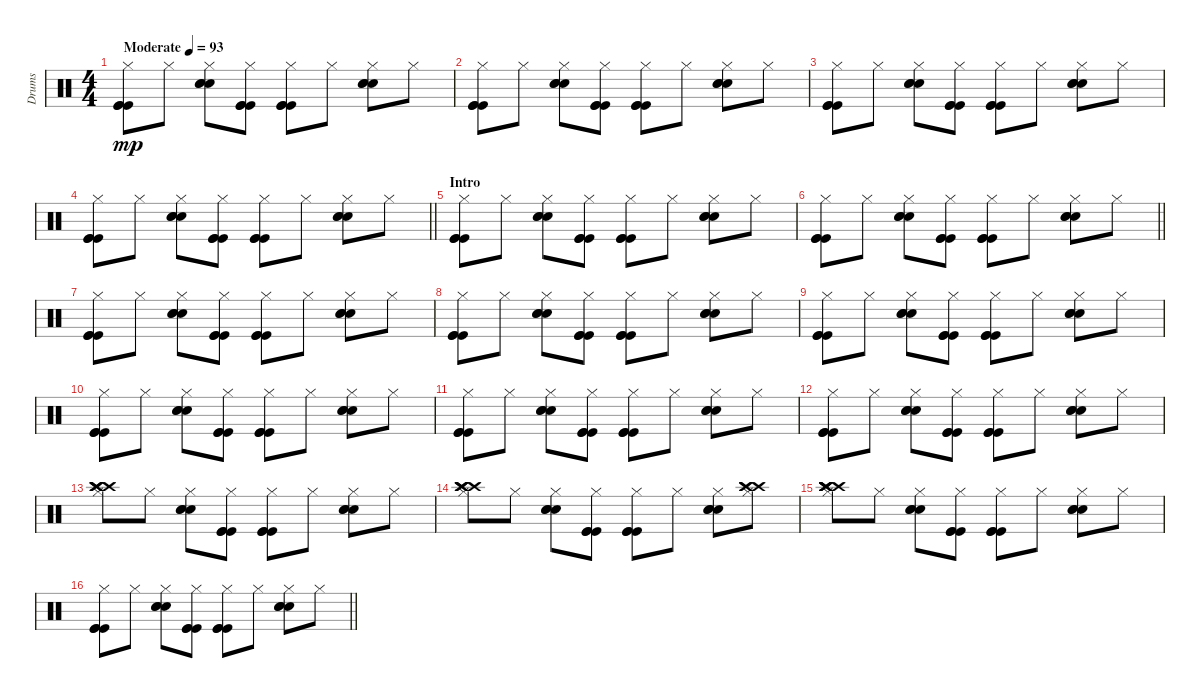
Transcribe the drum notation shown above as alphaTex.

\track ("Drums" "Drums") {instrument percussion}
\staff {score}
\articulation defaults
\ts (4 4)
\tempo (93 "Moderate")
\clef neutral
\ks c
("Kick (hit)" "Kick (hit)" "Kick (hit)" "Hi-Hat (closed)").8{dy mp} "Hi-Hat (closed)".8 ("Snare (hit) 2" "Snare (hit) 2" "Snare (hit) 2" "Hi-Hat (closed)").8 ("Kick (hit)" "Kick (hit)" "Kick (hit)" "Hi-Hat (closed)").8 ("Kick (hit)" "Kick (hit)" "Kick (hit)" "Hi-Hat (closed)").8 "Hi-Hat (closed)".8 ("Snare (hit) 2" "Snare (hit) 2" "Snare (hit) 2" "Hi-Hat (closed)").8 "Hi-Hat (closed)".8 |
("Kick (hit)" "Kick (hit)" "Kick (hit)" "Hi-Hat (closed)").8 "Hi-Hat (closed)".8 ("Snare (hit) 2" "Snare (hit) 2" "Snare (hit) 2" "Hi-Hat (closed)").8 ("Kick (hit)" "Kick (hit)" "Kick (hit)" "Hi-Hat (closed)").8 ("Kick (hit)" "Kick (hit)" "Kick (hit)" "Hi-Hat (closed)").8 "Hi-Hat (closed)".8 ("Snare (hit) 2" "Snare (hit) 2" "Snare (hit) 2" "Hi-Hat (closed)").8 "Hi-Hat (closed)".8 |
("Kick (hit)" "Kick (hit)" "Kick (hit)" "Hi-Hat (closed)").8 "Hi-Hat (closed)".8 ("Snare (hit) 2" "Snare (hit) 2" "Snare (hit) 2" "Hi-Hat (closed)").8 ("Kick (hit)" "Kick (hit)" "Kick (hit)" "Hi-Hat (closed)").8 ("Kick (hit)" "Kick (hit)" "Kick (hit)" "Hi-Hat (closed)").8 "Hi-Hat (closed)".8 ("Snare (hit) 2" "Snare (hit) 2" "Snare (hit) 2" "Hi-Hat (closed)").8 "Hi-Hat (closed)".8 |
\barLineRight lightlight
("Kick (hit)" "Kick (hit)" "Kick (hit)" "Hi-Hat (closed)").8 "Hi-Hat (closed)".8 ("Snare (hit) 2" "Snare (hit) 2" "Snare (hit) 2" "Hi-Hat (closed)").8 ("Kick (hit)" "Kick (hit)" "Kick (hit)" "Hi-Hat (closed)").8 ("Kick (hit)" "Kick (hit)" "Kick (hit)" "Hi-Hat (closed)").8 "Hi-Hat (closed)".8 ("Snare (hit) 2" "Snare (hit) 2" "Snare (hit) 2" "Hi-Hat (closed)").8 "Hi-Hat (closed)".8 |
\section ("" "Intro")
("Kick (hit)" "Kick (hit)" "Kick (hit)" "Hi-Hat (closed)").8 "Hi-Hat (closed)".8 ("Snare (hit) 2" "Snare (hit) 2" "Snare (hit) 2" "Hi-Hat (closed)").8 ("Kick (hit)" "Kick (hit)" "Kick (hit)" "Hi-Hat (closed)").8 ("Kick (hit)" "Kick (hit)" "Kick (hit)" "Hi-Hat (closed)").8 "Hi-Hat (closed)".8 ("Snare (hit) 2" "Snare (hit) 2" "Snare (hit) 2" "Hi-Hat (closed)").8 "Hi-Hat (closed)".8 |
\barLineRight lightlight
("Kick (hit)" "Kick (hit)" "Kick (hit)" "Hi-Hat (closed)").8 "Hi-Hat (closed)".8 ("Snare (hit) 2" "Snare (hit) 2" "Snare (hit) 2" "Hi-Hat (closed)").8 ("Kick (hit)" "Kick (hit)" "Kick (hit)" "Hi-Hat (closed)").8 ("Kick (hit)" "Kick (hit)" "Kick (hit)" "Hi-Hat (closed)").8 "Hi-Hat (closed)".8 ("Snare (hit) 2" "Snare (hit) 2" "Snare (hit) 2" "Hi-Hat (closed)").8 "Hi-Hat (closed)".8 |
("Kick (hit)" "Kick (hit)" "Kick (hit)" "Hi-Hat (closed)").8 "Hi-Hat (closed)".8 ("Snare (hit) 2" "Snare (hit) 2" "Snare (hit) 2" "Hi-Hat (closed)").8 ("Kick (hit)" "Kick (hit)" "Kick (hit)" "Hi-Hat (closed)").8 ("Kick (hit)" "Kick (hit)" "Kick (hit)" "Hi-Hat (closed)").8 "Hi-Hat (closed)".8 ("Snare (hit) 2" "Snare (hit) 2" "Snare (hit) 2" "Hi-Hat (closed)").8 "Hi-Hat (closed)".8 |
("Kick (hit)" "Kick (hit)" "Kick (hit)" "Hi-Hat (closed)").8 "Hi-Hat (closed)".8 ("Snare (hit) 2" "Snare (hit) 2" "Snare (hit) 2" "Hi-Hat (closed)").8 ("Kick (hit)" "Kick (hit)" "Kick (hit)" "Hi-Hat (closed)").8 ("Kick (hit)" "Kick (hit)" "Kick (hit)" "Hi-Hat (closed)").8 "Hi-Hat (closed)".8 ("Snare (hit) 2" "Snare (hit) 2" "Snare (hit) 2" "Hi-Hat (closed)").8 "Hi-Hat (closed)".8 |
("Kick (hit)" "Kick (hit)" "Kick (hit)" "Hi-Hat (closed)").8 "Hi-Hat (closed)".8 ("Snare (hit) 2" "Snare (hit) 2" "Snare (hit) 2" "Hi-Hat (closed)").8 ("Kick (hit)" "Kick (hit)" "Kick (hit)" "Hi-Hat (closed)").8 ("Kick (hit)" "Kick (hit)" "Kick (hit)" "Hi-Hat (closed)").8 "Hi-Hat (closed)".8 ("Snare (hit) 2" "Snare (hit) 2" "Snare (hit) 2" "Hi-Hat (closed)").8 "Hi-Hat (closed)".8 |
("Kick (hit)" "Kick (hit)" "Kick (hit)" "Hi-Hat (closed)").8 "Hi-Hat (closed)".8 ("Snare (hit) 2" "Snare (hit) 2" "Snare (hit) 2" "Hi-Hat (closed)").8 ("Kick (hit)" "Kick (hit)" "Kick (hit)" "Hi-Hat (closed)").8 ("Kick (hit)" "Kick (hit)" "Kick (hit)" "Hi-Hat (closed)").8 "Hi-Hat (closed)".8 ("Snare (hit) 2" "Snare (hit) 2" "Snare (hit) 2" "Hi-Hat (closed)").8 "Hi-Hat (closed)".8 |
("Kick (hit)" "Kick (hit)" "Kick (hit)" "Hi-Hat (closed)").8 "Hi-Hat (closed)".8 ("Snare (hit) 2" "Snare (hit) 2" "Snare (hit) 2" "Hi-Hat (closed)").8 ("Kick (hit)" "Kick (hit)" "Kick (hit)" "Hi-Hat (closed)").8 ("Kick (hit)" "Kick (hit)" "Kick (hit)" "Hi-Hat (closed)").8 "Hi-Hat (closed)".8 ("Snare (hit) 2" "Snare (hit) 2" "Snare (hit) 2" "Hi-Hat (closed)").8 "Hi-Hat (closed)".8 |
("Kick (hit)" "Kick (hit)" "Kick (hit)" "Hi-Hat (closed)").8 "Hi-Hat (closed)".8 ("Snare (hit) 2" "Snare (hit) 2" "Snare (hit) 2" "Hi-Hat (closed)").8 ("Kick (hit)" "Kick (hit)" "Kick (hit)" "Hi-Hat (closed)").8 ("Kick (hit)" "Kick (hit)" "Kick (hit)" "Hi-Hat (closed)").8 "Hi-Hat (closed)".8 ("Snare (hit) 2" "Snare (hit) 2" "Snare (hit) 2" "Hi-Hat (closed)").8 "Hi-Hat (closed)".8 |
("Crash high (hit)" "Crash high (hit)" "Crash high (hit)" "Crash high (hit)" "Hi-Hat (closed)").8 "Hi-Hat (closed)".8 ("Snare (hit) 2" "Snare (hit) 2" "Snare (hit) 2" "Hi-Hat (closed)").8 ("Kick (hit)" "Kick (hit)" "Kick (hit)" "Hi-Hat (closed)").8 ("Kick (hit)" "Kick (hit)" "Kick (hit)" "Hi-Hat (closed)").8 "Hi-Hat (closed)".8 ("Snare (hit) 2" "Snare (hit) 2" "Snare (hit) 2" "Hi-Hat (closed)").8 "Hi-Hat (closed)".8 |
("Crash high (hit)" "Crash high (hit)" "Crash high (hit)" "Crash high (hit)" "Hi-Hat (closed)").8 "Hi-Hat (closed)".8 ("Snare (hit) 2" "Snare (hit) 2" "Snare (hit) 2" "Hi-Hat (closed)").8 ("Kick (hit)" "Kick (hit)" "Kick (hit)" "Hi-Hat (closed)").8 ("Kick (hit)" "Kick (hit)" "Kick (hit)" "Hi-Hat (closed)").8 "Hi-Hat (closed)".8 ("Snare (hit) 2" "Snare (hit) 2" "Snare (hit) 2" "Hi-Hat (closed)").8 ("Crash high (hit)" "Crash high (hit)" "Crash high (hit)" "Hi-Hat (closed)").8 |
("Crash high (hit)" "Crash high (hit)" "Crash high (hit)" "Crash high (hit)" "Crash high (hit)" "Hi-Hat (closed)").8 "Hi-Hat (closed)".8 ("Snare (hit) 2" "Snare (hit) 2" "Snare (hit) 2" "Hi-Hat (closed)").8 ("Kick (hit)" "Kick (hit)" "Kick (hit)" "Hi-Hat (closed)").8 ("Kick (hit)" "Kick (hit)" "Kick (hit)" "Hi-Hat (closed)").8 "Hi-Hat (closed)".8 ("Snare (hit) 2" "Snare (hit) 2" "Snare (hit) 2" "Hi-Hat (closed)").8 "Hi-Hat (closed)".8 |
\barLineRight lightlight
("Kick (hit)" "Kick (hit)" "Kick (hit)" "Hi-Hat (closed)").8 "Hi-Hat (closed)".8 ("Snare (hit) 2" "Snare (hit) 2" "Snare (hit) 2" "Hi-Hat (closed)").8 ("Kick (hit)" "Kick (hit)" "Kick (hit)" "Hi-Hat (closed)").8 ("Kick (hit)" "Kick (hit)" "Kick (hit)" "Hi-Hat (closed)").8 "Hi-Hat (closed)".8 ("Snare (hit) 2" "Snare (hit) 2" "Snare (hit) 2" "Hi-Hat (closed)").8 "Hi-Hat (closed)".8
